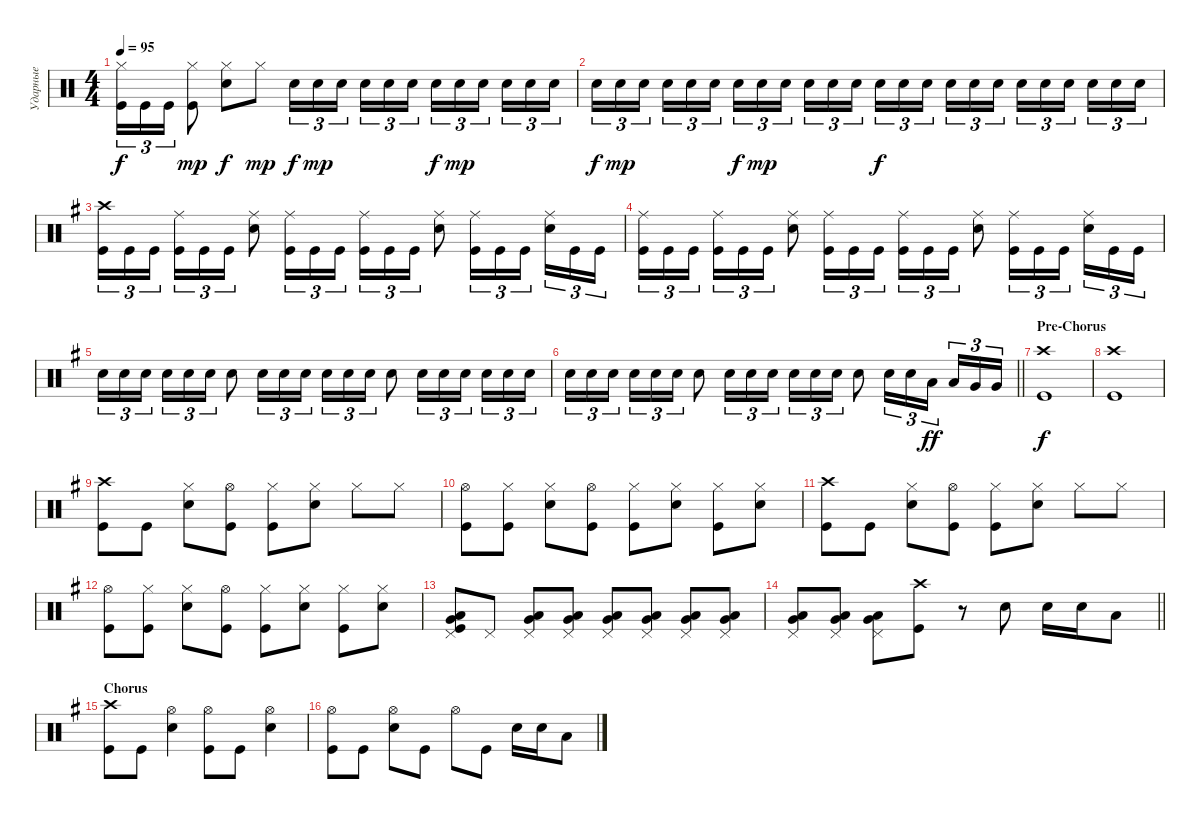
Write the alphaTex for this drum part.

\track ("Ударные" "Ударные") {instrument percussion}
\staff {score}
\articulation defaults
\ts (4 4)
\tempo 95
\clef neutral
\ks aminor
("Kick (hit)" "Hi-Hat (closed)").16{tu (3 2) dy f} "Kick (hit)".16{tu (3 2)} "Kick (hit)".16{tu (3 2)} ("Hi-Hat (closed)" "Kick (hit)").8{dy mp} ("Snare (hit) 2" "Hi-Hat (closed)").8{dy f} "Hi-Hat (closed)".8{dy mp} "Snare (hit) 2".16{tu (3 2) dy f} "Snare (hit) 2".16{tu (3 2) dy mp} "Snare (hit) 2".16{tu (3 2) beam splitsecondary} "Snare (hit) 2".16{tu (3 2)} "Snare (hit) 2".16{tu (3 2)} "Snare (hit) 2".16{tu (3 2)} "Snare (hit) 2".16{tu (3 2) dy f} "Snare (hit) 2".16{tu (3 2) dy mp} "Snare (hit) 2".16{tu (3 2) beam splitsecondary} "Snare (hit) 2".16{tu (3 2)} "Snare (hit) 2".16{tu (3 2)} "Snare (hit) 2".16{tu (3 2)} |
"Snare (hit) 2".16{tu (3 2) dy f} "Snare (hit) 2".16{tu (3 2) dy mp} "Snare (hit) 2".16{tu (3 2) beam splitsecondary} "Snare (hit) 2".16{tu (3 2)} "Snare (hit) 2".16{tu (3 2)} "Snare (hit) 2".16{tu (3 2)} "Snare (hit) 2".16{tu (3 2) dy f} "Snare (hit) 2".16{tu (3 2) dy mp} "Snare (hit) 2".16{tu (3 2) beam splitsecondary} "Snare (hit) 2".16{tu (3 2)} "Snare (hit) 2".16{tu (3 2)} "Snare (hit) 2".16{tu (3 2)} "Snare (hit) 2".16{tu (3 2) dy f} "Snare (hit) 2".16{tu (3 2)} "Snare (hit) 2".16{tu (3 2) beam splitsecondary} "Snare (hit) 2".16{tu (3 2)} "Snare (hit) 2".16{tu (3 2)} "Snare (hit) 2".16{tu (3 2)} "Snare (hit) 2".16{tu (3 2)} "Snare (hit) 2".16{tu (3 2)} "Snare (hit) 2".16{tu (3 2) beam splitsecondary} "Snare (hit) 2".16{tu (3 2)} "Snare (hit) 2".16{tu (3 2)} "Snare (hit) 2".16{tu (3 2)} |
\ks eminor
("Kick (hit)" "Crash high (hit)").16{tu (3 2)} "Kick (hit)".16{tu (3 2)} "Kick (hit)".16{tu (3 2) beam splitsecondary} ("Kick (hit)" "Ride (middle)").16{tu (3 2)} "Kick (hit)".16{tu (3 2)} "Kick (hit)".16{tu (3 2)} ("Snare (hit) 2" "Ride (middle)").8 ("Kick (hit)" "Ride (middle)").16{tu (3 2)} "Kick (hit)".16{tu (3 2)} "Kick (hit)".16{tu (3 2)} ("Kick (hit)" "Ride (middle)").16{tu (3 2)} "Kick (hit)".16{tu (3 2)} "Kick (hit)".16{tu (3 2)} ("Snare (hit) 2" "Ride (middle)").8 ("Kick (hit)" "Ride (middle)").16{tu (3 2)} "Kick (hit)".16{tu (3 2)} "Kick (hit)".16{tu (3 2) beam splitsecondary} ("Snare (hit) 2" "Ride (middle)").16{tu (3 2)} "Kick (hit)".16{tu (3 2)} "Kick (hit)".16{tu (3 2)} |
("Kick (hit)" "Ride (middle)").16{tu (3 2)} "Kick (hit)".16{tu (3 2)} "Kick (hit)".16{tu (3 2) beam splitsecondary} ("Kick (hit)" "Ride (middle)").16{tu (3 2)} "Kick (hit)".16{tu (3 2)} "Kick (hit)".16{tu (3 2)} ("Snare (hit) 2" "Ride (middle)").8 ("Kick (hit)" "Ride (middle)").16{tu (3 2)} "Kick (hit)".16{tu (3 2)} "Kick (hit)".16{tu (3 2)} ("Kick (hit)" "Ride (middle)").16{tu (3 2)} "Kick (hit)".16{tu (3 2)} "Kick (hit)".16{tu (3 2)} ("Snare (hit) 2" "Ride (middle)").8 ("Kick (hit)" "Ride (middle)").16{tu (3 2)} "Kick (hit)".16{tu (3 2)} "Kick (hit)".16{tu (3 2) beam splitsecondary} ("Snare (hit) 2" "Ride (middle)").16{tu (3 2)} "Kick (hit)".16{tu (3 2)} "Kick (hit)".16{tu (3 2)} |
"Snare (hit) 2".16{tu (3 2)} "Snare (hit) 2".16{tu (3 2)} "Snare (hit) 2".16{tu (3 2) beam splitsecondary} "Snare (hit) 2".16{tu (3 2)} "Snare (hit) 2".16{tu (3 2)} "Snare (hit) 2".16{tu (3 2)} "Snare (hit) 2".8 "Snare (hit) 2".16{tu (3 2)} "Snare (hit) 2".16{tu (3 2)} "Snare (hit) 2".16{tu (3 2)} "Snare (hit) 2".16{tu (3 2)} "Snare (hit) 2".16{tu (3 2)} "Snare (hit) 2".16{tu (3 2)} "Snare (hit) 2".8 "Snare (hit) 2".16{tu (3 2)} "Snare (hit) 2".16{tu (3 2)} "Snare (hit) 2".16{tu (3 2) beam splitsecondary} "Snare (hit) 2".16{tu (3 2)} "Snare (hit) 2".16{tu (3 2)} "Snare (hit) 2".16{tu (3 2)} |
\barLineRight lightlight "Snare (hit) 2".16{tu (3 2)} "Snare (hit) 2".16{tu (3 2)} "Snare (hit) 2".16{tu (3 2) beam splitsecondary} "Snare (hit) 2".16{tu (3 2)} "Snare (hit) 2".16{tu (3 2)} "Snare (hit) 2".16{tu (3 2)} "Snare (hit) 2".8 "Snare (hit) 2".16{tu (3 2)} "Snare (hit) 2".16{tu (3 2)} "Snare (hit) 2".16{tu (3 2)} "Snare (hit) 2".16{tu (3 2)} "Snare (hit) 2".16{tu (3 2)} "Snare (hit) 2".16{tu (3 2)} "Snare (hit) 2".8 "Snare (hit) 2".16{tu (3 2)} "Snare (hit) 2".16{tu (3 2)} "Low Tom (hit)".16{tu (3 2) dy ff beam splitsecondary} "Low Tom (hit)".16{tu (3 2)} "Very Low Tom (hit)".16{tu (3 2)} "Very Low Tom (hit)".16{tu (3 2)}
|
\section ("" "Pre-Chorus")
("Kick (hit)" "Crash high (hit)").1{dy f} |
("Kick (hit)" "Crash high (hit)").1 |
("Kick (hit)" "Crash high (hit)").8 "Kick (hit)".8 ("Snare (hit) 2" "Hi-Hat (closed)").8 ("Kick (hit)" "Hi-Hat (open)").8 ("Kick (hit)" "Hi-Hat (closed)").8 ("Snare (hit) 2" "Hi-Hat (closed)").8 "Hi-Hat (closed)".8 "Hi-Hat (closed)".8 |
("Kick (hit)" "Hi-Hat (open)").8 ("Kick (hit)" "Hi-Hat (closed)").8 ("Snare (hit) 2" "Hi-Hat (closed)").8 ("Kick (hit)" "Hi-Hat (open)").8 ("Kick (hit)" "Hi-Hat (closed)").8 ("Snare (hit) 2" "Hi-Hat (closed)").8 ("Hi-Hat (closed)" "Kick (hit)").8 ("Hi-Hat (closed)" "Snare (hit) 2").8 |
("Kick (hit)" "Crash high (hit)").8 "Kick (hit)".8 ("Snare (hit) 2" "Hi-Hat (closed)").8 ("Kick (hit)" "Hi-Hat (open)").8 ("Kick (hit)" "Hi-Hat (closed)").8 ("Snare (hit) 2" "Hi-Hat (closed)").8 "Hi-Hat (closed)".8 "Hi-Hat (closed)".8 |
("Kick (hit)" "Hi-Hat (open)").8 ("Kick (hit)" "Hi-Hat (closed)").8 ("Snare (hit) 2" "Hi-Hat (closed)").8 ("Kick (hit)" "Hi-Hat (open)").8 ("Kick (hit)" "Hi-Hat (closed)").8 ("Snare (hit) 2" "Hi-Hat (closed)").8 ("Hi-Hat (closed)" "Kick (hit)").8 ("Hi-Hat (closed)" "Snare (hit) 2").8 |
("Kick (hit)" "Very Low Tom (hit)" "Low Tom (hit)" "Pedal Hi-Hat (hit)").8{bd 120} "Pedal Hi-Hat (hit)".8 ("Low Tom (hit)" "Very Low Tom (hit)" "Pedal Hi-Hat (hit)").8{bd 120} ("Low Tom (hit)" "Very Low Tom (hit)" "Pedal Hi-Hat (hit)").8{bd 120} ("Low Tom (hit)" "Very Low Tom (hit)" "Pedal Hi-Hat (hit)").8{bd 120} ("Low Tom (hit)" "Very Low Tom (hit)" "Pedal Hi-Hat (hit)").8{bd 120} ("Low Tom (hit)" "Very Low Tom (hit)" "Pedal Hi-Hat (hit)").8{bd 120} ("Low Tom (hit)" "Very Low Tom (hit)" "Pedal Hi-Hat (hit)").8{bd 120} |
\barLineRight lightlight
("Low Tom (hit)" "Very Low Tom (hit)" "Pedal Hi-Hat (hit)").8{bd 120} ("Low Tom (hit)" "Very Low Tom (hit)" "Pedal Hi-Hat (hit)").8{bd 120} ("Low Tom (hit)" "Very Low Tom (hit)" "Pedal Hi-Hat (hit)").8{bd 120} ("Kick (hit)" "Crash high (hit)").8 r.8 "Snare (hit) 2".8 "Snare (hit) 2".16 "Snare (hit) 2".16 "Low Tom (hit)".8 |
\section ("" "Chorus")
("Kick (hit)" "Crash high (hit)").8 "Kick (hit)".8 ("Snare (hit) 2" "Hi-Hat (open)").4 ("Kick (hit)" "Hi-Hat (open)").8 "Kick (hit)".8 ("Snare (hit) 2" "Hi-Hat (open)").4 |
("Kick (hit)" "Hi-Hat (open)").8 "Kick (hit)".8 ("Snare (hit) 2" "Hi-Hat (open)").8 "Kick (hit)".8 "Hi-Hat (open)".8 "Kick (hit)".8 "Snare (hit) 2".16 "Snare (hit) 2".16 "Low Tom (hit)".8
